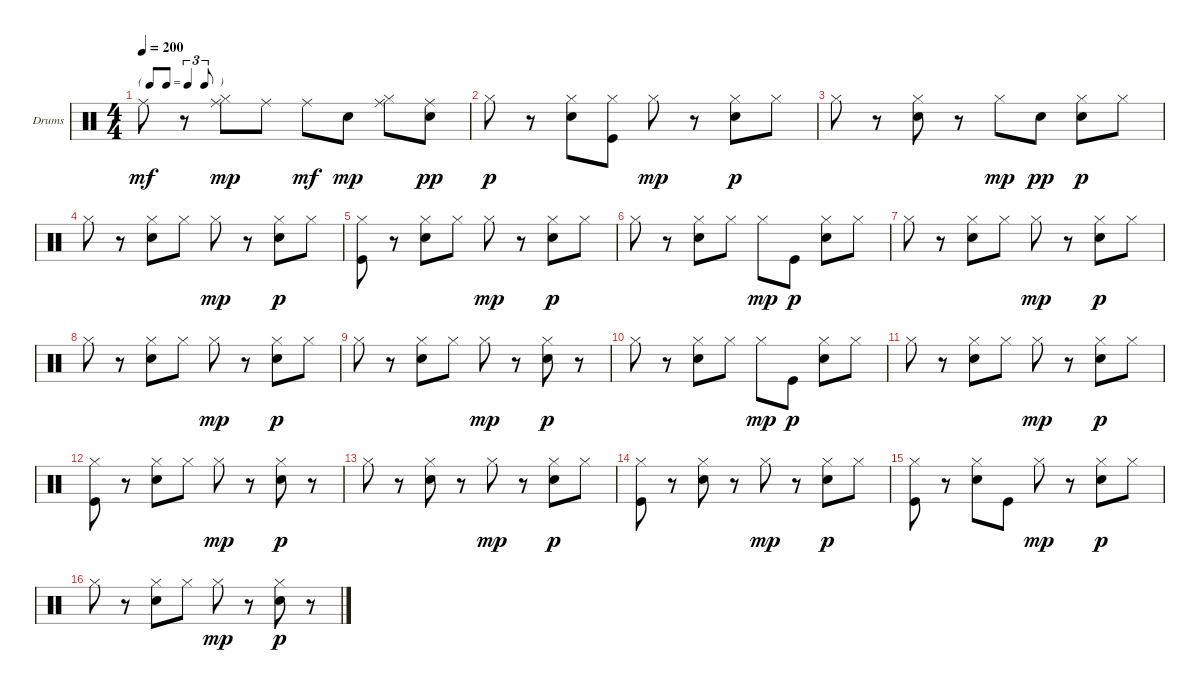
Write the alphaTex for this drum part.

\bracketExtendMode groupsimilarinstruments
\firstSystemTrackNameOrientation horizontal
\otherSystemsTrackNameOrientation horizontal
\track ("Drumkit" "Drums") {instrument percussion}
\staff {score}
\articulation defaults
\ts (4 4)
\tf triplet8th
\tempo 200
\clef neutral
\ks c "Ride (middle)".8{dy mf}
r.8 ("Hi-Hat (closed)" "Ride (middle)").8{dy mp} "Ride (middle)".8 "Ride (middle)".8{dy mf} "Snare (hit) 2".8{dy mp} ("Hi-Hat (closed)" "Ride (middle)").8 ("Snare (hit) 2" "Ride (middle)").8{dy pp} |
"Hi-Hat (closed)".8{dy p} r.8 ("Snare (hit) 2" "Hi-Hat (closed)").8 ("Kick (hit)" "Hi-Hat (closed)").8 "Hi-Hat (closed)".8{dy mp} r.8 ("Snare (hit) 2" "Hi-Hat (closed)").8{dy p} "Hi-Hat (closed)".8 |
"Hi-Hat (closed)".8 r.8 ("Snare (hit) 2" "Hi-Hat (closed)").8 r.8 "Hi-Hat (closed)".8{dy mp} "Snare (hit) 2".8{dy pp} ("Snare (hit) 2" "Hi-Hat (closed)").8{dy p} "Hi-Hat (closed)".8 |
"Hi-Hat (closed)".8 r.8 ("Snare (hit) 2" "Hi-Hat (closed)").8 "Hi-Hat (closed)".8 "Hi-Hat (closed)".8{dy mp} r.8 ("Snare (hit) 2" "Hi-Hat (closed)").8{dy p} "Hi-Hat (closed)".8 |
("Kick (hit)" "Hi-Hat (closed)").8 r.8 ("Snare (hit) 2" "Hi-Hat (closed)").8 "Hi-Hat (closed)".8 "Hi-Hat (closed)".8{dy mp} r.8 ("Snare (hit) 2" "Hi-Hat (closed)").8{dy p} "Hi-Hat (closed)".8 |
"Hi-Hat (closed)".8 r.8 ("Snare (hit) 2" "Hi-Hat (closed)").8 "Hi-Hat (closed)".8 "Hi-Hat (closed)".8{dy mp} "Kick (hit)".8{dy p} ("Snare (hit) 2" "Hi-Hat (closed)").8 "Hi-Hat (closed)".8 |
"Hi-Hat (closed)".8 r.8 ("Snare (hit) 2" "Hi-Hat (closed)").8 "Hi-Hat (closed)".8 "Hi-Hat (closed)".8{dy mp} r.8 ("Snare (hit) 2" "Hi-Hat (closed)").8{dy p} "Hi-Hat (closed)".8 |
"Hi-Hat (closed)".8 r.8 ("Snare (hit) 2" "Hi-Hat (closed)").8 "Hi-Hat (closed)".8 "Hi-Hat (closed)".8{dy mp} r.8 ("Snare (hit) 2" "Hi-Hat (closed)").8{dy p} "Hi-Hat (closed)".8 |
"Hi-Hat (closed)".8 r.8 ("Snare (hit) 2" "Hi-Hat (closed)").8 "Hi-Hat (closed)".8 "Hi-Hat (closed)".8{dy mp} r.8 ("Snare (hit) 2" "Hi-Hat (closed)").8{dy p} r.8 |
"Hi-Hat (closed)".8 r.8 ("Snare (hit) 2" "Hi-Hat (closed)").8 "Hi-Hat (closed)".8 "Hi-Hat (closed)".8{dy mp} "Kick (hit)".8{dy p} ("Snare (hit) 2" "Hi-Hat (closed)").8 "Hi-Hat (closed)".8 |
"Hi-Hat (closed)".8 r.8 ("Snare (hit) 2" "Hi-Hat (closed)").8 "Hi-Hat (closed)".8 "Hi-Hat (closed)".8{dy mp} r.8 ("Snare (hit) 2" "Hi-Hat (closed)").8{dy p} "Hi-Hat (closed)".8 |
("Kick (hit)" "Hi-Hat (closed)").8 r.8 ("Snare (hit) 2" "Hi-Hat (closed)").8 "Hi-Hat (closed)".8 "Hi-Hat (closed)".8{dy mp} r.8 ("Snare (hit) 2" "Hi-Hat (closed)").8{dy p} r.8 |
"Hi-Hat (closed)".8 r.8 ("Snare (hit) 2" "Hi-Hat (closed)").8 r.8 "Hi-Hat (closed)".8{dy mp} r.8 ("Snare (hit) 2" "Hi-Hat (closed)").8{dy p} "Hi-Hat (closed)".8 |
("Kick (hit)" "Hi-Hat (closed)").8 r.8 ("Snare (hit) 2" "Hi-Hat (closed)").8 r.8 "Hi-Hat (closed)".8{dy mp} r.8 ("Snare (hit) 2" "Hi-Hat (closed)").8{dy p} "Hi-Hat (closed)".8 |
("Kick (hit)" "Hi-Hat (closed)").8 r.8 ("Snare (hit) 2" "Hi-Hat (closed)").8 "Kick (hit)".8 "Hi-Hat (closed)".8{dy mp} r.8 ("Snare (hit) 2" "Hi-Hat (closed)").8{dy p} "Hi-Hat (closed)".8 |
"Hi-Hat (closed)".8 r.8 ("Snare (hit) 2" "Hi-Hat (closed)").8 "Hi-Hat (closed)".8 "Hi-Hat (closed)".8{dy mp} r.8 ("Snare (hit) 2" "Hi-Hat (closed)").8{dy p} r.8
